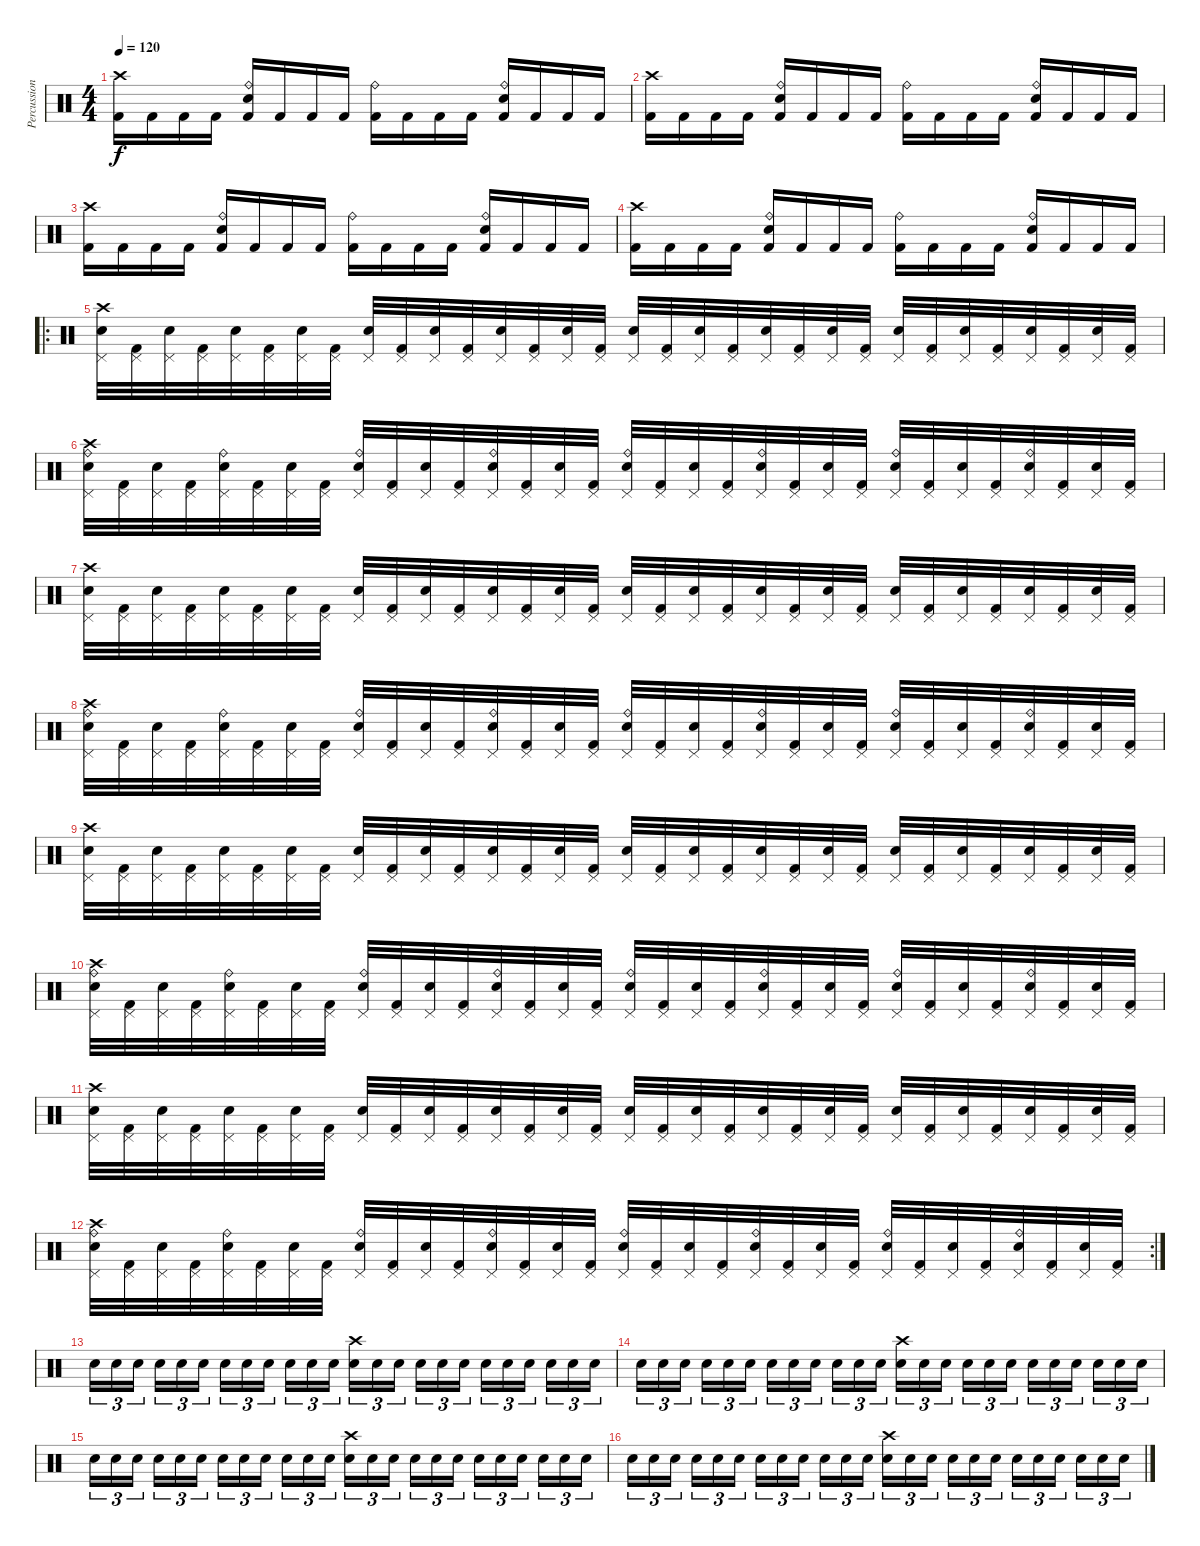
\track ("Percussions" "Percussion") {instrument percussion}
\staff {score}
\articulation defaults
\ts (4 4)
\tempo 120
\clef neutral
\ks c
("Crash high (hit)" "Kick (hit) 2").16{dy f} "Kick (hit) 2".16 "Kick (hit) 2".16 "Kick (hit) 2".16 ("Ride (bell)" "Snare (hit) 2" "Kick (hit) 2").16 "Kick (hit) 2".16 "Kick (hit) 2".16 "Kick (hit) 2".16 ("Ride (bell)" "Kick (hit) 2").16 "Kick (hit) 2".16 "Kick (hit) 2".16 "Kick (hit) 2".16 ("Ride (bell)" "Snare (hit) 2" "Kick (hit) 2").16 "Kick (hit) 2".16 "Kick (hit) 2".16 "Kick (hit) 2".16 |
("Crash high (hit)" "Kick (hit) 2").16 "Kick (hit) 2".16 "Kick (hit) 2".16 "Kick (hit) 2".16 ("Ride (bell)" "Snare (hit) 2" "Kick (hit) 2").16 "Kick (hit) 2".16 "Kick (hit) 2".16 "Kick (hit) 2".16 ("Ride (bell)" "Kick (hit) 2").16 "Kick (hit) 2".16 "Kick (hit) 2".16 "Kick (hit) 2".16 ("Ride (bell)" "Snare (hit) 2" "Kick (hit) 2").16 "Kick (hit) 2".16 "Kick (hit) 2".16 "Kick (hit) 2".16 |
("Crash high (hit)" "Kick (hit) 2").16 "Kick (hit) 2".16 "Kick (hit) 2".16 "Kick (hit) 2".16 ("Ride (bell)" "Snare (hit) 2" "Kick (hit) 2").16 "Kick (hit) 2".16 "Kick (hit) 2".16 "Kick (hit) 2".16 ("Ride (bell)" "Kick (hit) 2").16 "Kick (hit) 2".16 "Kick (hit) 2".16 "Kick (hit) 2".16 ("Ride (bell)" "Snare (hit) 2" "Kick (hit) 2").16 "Kick (hit) 2".16 "Kick (hit) 2".16 "Kick (hit) 2".16 |
("Crash high (hit)" "Kick (hit) 2").16 "Kick (hit) 2".16 "Kick (hit) 2".16 "Kick (hit) 2".16 ("Ride (bell)" "Snare (hit) 2" "Kick (hit) 2").16 "Kick (hit) 2".16 "Kick (hit) 2".16 "Kick (hit) 2".16 ("Ride (bell)" "Kick (hit) 2").16 "Kick (hit) 2".16 "Kick (hit) 2".16 "Kick (hit) 2".16 ("Ride (bell)" "Snare (hit) 2" "Kick (hit) 2").16 "Kick (hit) 2".16 "Kick (hit) 2".16 "Kick (hit) 2".16 |
\ro
("Pedal Hi-Hat (hit)" "Crash high (hit)" "Electric Snare (hit)").32{volume 16} ("Pedal Hi-Hat (hit)" "Kick (hit) 2").32 ("Pedal Hi-Hat (hit)" "Electric Snare (hit)").32 ("Pedal Hi-Hat (hit)" "Kick (hit) 2").32 ("Pedal Hi-Hat (hit)" "Electric Snare (hit)").32 ("Pedal Hi-Hat (hit)" "Kick (hit) 2").32 ("Pedal Hi-Hat (hit)" "Electric Snare (hit)").32 ("Pedal Hi-Hat (hit)" "Kick (hit) 2").32 ("Pedal Hi-Hat (hit)" "Electric Snare (hit)").32 ("Pedal Hi-Hat (hit)" "Kick (hit) 2").32 ("Pedal Hi-Hat (hit)" "Electric Snare (hit)").32 ("Pedal Hi-Hat (hit)" "Kick (hit) 2").32 ("Pedal Hi-Hat (hit)" "Electric Snare (hit)").32 ("Pedal Hi-Hat (hit)" "Kick (hit) 2").32 ("Pedal Hi-Hat (hit)" "Electric Snare (hit)").32 ("Pedal Hi-Hat (hit)" "Kick (hit) 2").32 ("Pedal Hi-Hat (hit)" "Electric Snare (hit)").32 ("Pedal Hi-Hat (hit)" "Kick (hit) 2").32 ("Pedal Hi-Hat (hit)" "Electric Snare (hit)").32 ("Pedal Hi-Hat (hit)" "Kick (hit) 2").32 ("Pedal Hi-Hat (hit)" "Electric Snare (hit)").32 ("Pedal Hi-Hat (hit)" "Kick (hit) 2").32 ("Pedal Hi-Hat (hit)" "Electric Snare (hit)").32 ("Pedal Hi-Hat (hit)" "Kick (hit) 2").32 ("Pedal Hi-Hat (hit)" "Electric Snare (hit)").32 ("Pedal Hi-Hat (hit)" "Kick (hit) 2").32 ("Pedal Hi-Hat (hit)" "Electric Snare (hit)").32 ("Pedal Hi-Hat (hit)" "Kick (hit) 2").32 ("Pedal Hi-Hat (hit)" "Electric Snare (hit)").32 ("Pedal Hi-Hat (hit)" "Kick (hit) 2").32 ("Pedal Hi-Hat (hit)" "Electric Snare (hit)").32 ("Pedal Hi-Hat (hit)" "Kick (hit) 2").32 |
("Ride (bell)" "Pedal Hi-Hat (hit)" "Crash high (hit)" "Electric Snare (hit)").32 ("Pedal Hi-Hat (hit)" "Kick (hit) 2").32 ("Pedal Hi-Hat (hit)" "Electric Snare (hit)").32 ("Pedal Hi-Hat (hit)" "Kick (hit) 2").32 ("Ride (bell)" "Pedal Hi-Hat (hit)" "Electric Snare (hit)").32 ("Pedal Hi-Hat (hit)" "Kick (hit) 2").32 ("Pedal Hi-Hat (hit)" "Electric Snare (hit)").32 ("Pedal Hi-Hat (hit)" "Kick (hit) 2").32 ("Ride (bell)" "Pedal Hi-Hat (hit)" "Electric Snare (hit)").32 ("Pedal Hi-Hat (hit)" "Kick (hit) 2").32 ("Pedal Hi-Hat (hit)" "Electric Snare (hit)").32 ("Pedal Hi-Hat (hit)" "Kick (hit) 2").32 ("Ride (bell)" "Pedal Hi-Hat (hit)" "Electric Snare (hit)").32 ("Pedal Hi-Hat (hit)" "Kick (hit) 2").32 ("Pedal Hi-Hat (hit)" "Electric Snare (hit)").32 ("Pedal Hi-Hat (hit)" "Kick (hit) 2").32 ("Ride (bell)" "Pedal Hi-Hat (hit)" "Electric Snare (hit)").32 ("Pedal Hi-Hat (hit)" "Kick (hit) 2").32 ("Pedal Hi-Hat (hit)" "Electric Snare (hit)").32 ("Pedal Hi-Hat (hit)" "Kick (hit) 2").32 ("Ride (bell)" "Pedal Hi-Hat (hit)" "Electric Snare (hit)").32 ("Pedal Hi-Hat (hit)" "Kick (hit) 2").32 ("Pedal Hi-Hat (hit)" "Electric Snare (hit)").32 ("Pedal Hi-Hat (hit)" "Kick (hit) 2").32 ("Ride (bell)" "Pedal Hi-Hat (hit)" "Electric Snare (hit)").32 ("Pedal Hi-Hat (hit)" "Kick (hit) 2").32 ("Pedal Hi-Hat (hit)" "Electric Snare (hit)").32 ("Pedal Hi-Hat (hit)" "Kick (hit) 2").32 ("Ride (bell)" "Pedal Hi-Hat (hit)" "Electric Snare (hit)").32 ("Pedal Hi-Hat (hit)" "Kick (hit) 2").32 ("Pedal Hi-Hat (hit)" "Electric Snare (hit)").32 ("Pedal Hi-Hat (hit)" "Kick (hit) 2").32 |
("Pedal Hi-Hat (hit)" "Crash high (hit)" "Electric Snare (hit)").32 ("Pedal Hi-Hat (hit)" "Kick (hit) 2").32 ("Pedal Hi-Hat (hit)" "Electric Snare (hit)").32 ("Pedal Hi-Hat (hit)" "Kick (hit) 2").32 ("Pedal Hi-Hat (hit)" "Electric Snare (hit)").32 ("Pedal Hi-Hat (hit)" "Kick (hit) 2").32 ("Pedal Hi-Hat (hit)" "Electric Snare (hit)").32 ("Pedal Hi-Hat (hit)" "Kick (hit) 2").32 ("Pedal Hi-Hat (hit)" "Electric Snare (hit)").32 ("Pedal Hi-Hat (hit)" "Kick (hit) 2").32 ("Pedal Hi-Hat (hit)" "Electric Snare (hit)").32 ("Pedal Hi-Hat (hit)" "Kick (hit) 2").32 ("Pedal Hi-Hat (hit)" "Electric Snare (hit)").32 ("Pedal Hi-Hat (hit)" "Kick (hit) 2").32 ("Pedal Hi-Hat (hit)" "Electric Snare (hit)").32 ("Pedal Hi-Hat (hit)" "Kick (hit) 2").32 ("Pedal Hi-Hat (hit)" "Electric Snare (hit)").32 ("Pedal Hi-Hat (hit)" "Kick (hit) 2").32 ("Pedal Hi-Hat (hit)" "Electric Snare (hit)").32 ("Pedal Hi-Hat (hit)" "Kick (hit) 2").32 ("Pedal Hi-Hat (hit)" "Electric Snare (hit)").32 ("Pedal Hi-Hat (hit)" "Kick (hit) 2").32 ("Pedal Hi-Hat (hit)" "Electric Snare (hit)").32 ("Pedal Hi-Hat (hit)" "Kick (hit) 2").32 ("Pedal Hi-Hat (hit)" "Electric Snare (hit)").32 ("Pedal Hi-Hat (hit)" "Kick (hit) 2").32 ("Pedal Hi-Hat (hit)" "Electric Snare (hit)").32 ("Pedal Hi-Hat (hit)" "Kick (hit) 2").32 ("Pedal Hi-Hat (hit)" "Electric Snare (hit)").32 ("Pedal Hi-Hat (hit)" "Kick (hit) 2").32 ("Pedal Hi-Hat (hit)" "Electric Snare (hit)").32 ("Pedal Hi-Hat (hit)" "Kick (hit) 2").32 |
("Ride (bell)" "Pedal Hi-Hat (hit)" "Crash high (hit)" "Electric Snare (hit)").32 ("Pedal Hi-Hat (hit)" "Kick (hit) 2").32 ("Pedal Hi-Hat (hit)" "Electric Snare (hit)").32 ("Pedal Hi-Hat (hit)" "Kick (hit) 2").32 ("Ride (bell)" "Pedal Hi-Hat (hit)" "Electric Snare (hit)").32 ("Pedal Hi-Hat (hit)" "Kick (hit) 2").32 ("Pedal Hi-Hat (hit)" "Electric Snare (hit)").32 ("Pedal Hi-Hat (hit)" "Kick (hit) 2").32 ("Ride (bell)" "Pedal Hi-Hat (hit)" "Electric Snare (hit)").32 ("Pedal Hi-Hat (hit)" "Kick (hit) 2").32 ("Pedal Hi-Hat (hit)" "Electric Snare (hit)").32 ("Pedal Hi-Hat (hit)" "Kick (hit) 2").32 ("Ride (bell)" "Pedal Hi-Hat (hit)" "Electric Snare (hit)").32 ("Pedal Hi-Hat (hit)" "Kick (hit) 2").32 ("Pedal Hi-Hat (hit)" "Electric Snare (hit)").32 ("Pedal Hi-Hat (hit)" "Kick (hit) 2").32 ("Ride (bell)" "Pedal Hi-Hat (hit)" "Electric Snare (hit)").32 ("Pedal Hi-Hat (hit)" "Kick (hit) 2").32 ("Pedal Hi-Hat (hit)" "Electric Snare (hit)").32 ("Pedal Hi-Hat (hit)" "Kick (hit) 2").32 ("Ride (bell)" "Pedal Hi-Hat (hit)" "Electric Snare (hit)").32 ("Pedal Hi-Hat (hit)" "Kick (hit) 2").32 ("Pedal Hi-Hat (hit)" "Electric Snare (hit)").32 ("Pedal Hi-Hat (hit)" "Kick (hit) 2").32 ("Ride (bell)" "Pedal Hi-Hat (hit)" "Electric Snare (hit)").32 ("Pedal Hi-Hat (hit)" "Kick (hit) 2").32 ("Pedal Hi-Hat (hit)" "Electric Snare (hit)").32 ("Pedal Hi-Hat (hit)" "Kick (hit) 2").32 ("Ride (bell)" "Pedal Hi-Hat (hit)" "Electric Snare (hit)").32 ("Pedal Hi-Hat (hit)" "Kick (hit) 2").32 ("Pedal Hi-Hat (hit)" "Electric Snare (hit)").32 ("Pedal Hi-Hat (hit)" "Kick (hit) 2").32 |
("Pedal Hi-Hat (hit)" "Crash high (hit)" "Electric Snare (hit)").32{volume 16} ("Pedal Hi-Hat (hit)" "Kick (hit) 2").32 ("Pedal Hi-Hat (hit)" "Electric Snare (hit)").32 ("Pedal Hi-Hat (hit)" "Kick (hit) 2").32 ("Pedal Hi-Hat (hit)" "Electric Snare (hit)").32 ("Pedal Hi-Hat (hit)" "Kick (hit) 2").32 ("Pedal Hi-Hat (hit)" "Electric Snare (hit)").32 ("Pedal Hi-Hat (hit)" "Kick (hit) 2").32 ("Pedal Hi-Hat (hit)" "Electric Snare (hit)").32 ("Pedal Hi-Hat (hit)" "Kick (hit) 2").32 ("Pedal Hi-Hat (hit)" "Electric Snare (hit)").32 ("Pedal Hi-Hat (hit)" "Kick (hit) 2").32 ("Pedal Hi-Hat (hit)" "Electric Snare (hit)").32 ("Pedal Hi-Hat (hit)" "Kick (hit) 2").32 ("Pedal Hi-Hat (hit)" "Electric Snare (hit)").32 ("Pedal Hi-Hat (hit)" "Kick (hit) 2").32 ("Pedal Hi-Hat (hit)" "Electric Snare (hit)").32 ("Pedal Hi-Hat (hit)" "Kick (hit) 2").32 ("Pedal Hi-Hat (hit)" "Electric Snare (hit)").32 ("Pedal Hi-Hat (hit)" "Kick (hit) 2").32 ("Pedal Hi-Hat (hit)" "Electric Snare (hit)").32 ("Pedal Hi-Hat (hit)" "Kick (hit) 2").32 ("Pedal Hi-Hat (hit)" "Electric Snare (hit)").32 ("Pedal Hi-Hat (hit)" "Kick (hit) 2").32 ("Pedal Hi-Hat (hit)" "Electric Snare (hit)").32 ("Pedal Hi-Hat (hit)" "Kick (hit) 2").32 ("Pedal Hi-Hat (hit)" "Electric Snare (hit)").32 ("Pedal Hi-Hat (hit)" "Kick (hit) 2").32 ("Pedal Hi-Hat (hit)" "Electric Snare (hit)").32 ("Pedal Hi-Hat (hit)" "Kick (hit) 2").32 ("Pedal Hi-Hat (hit)" "Electric Snare (hit)").32 ("Pedal Hi-Hat (hit)" "Kick (hit) 2").32 |
("Ride (bell)" "Pedal Hi-Hat (hit)" "Crash high (hit)" "Electric Snare (hit)").32 ("Pedal Hi-Hat (hit)" "Kick (hit) 2").32 ("Pedal Hi-Hat (hit)" "Electric Snare (hit)").32 ("Pedal Hi-Hat (hit)" "Kick (hit) 2").32 ("Ride (bell)" "Pedal Hi-Hat (hit)" "Electric Snare (hit)").32 ("Pedal Hi-Hat (hit)" "Kick (hit) 2").32 ("Pedal Hi-Hat (hit)" "Electric Snare (hit)").32 ("Pedal Hi-Hat (hit)" "Kick (hit) 2").32 ("Ride (bell)" "Pedal Hi-Hat (hit)" "Electric Snare (hit)").32 ("Pedal Hi-Hat (hit)" "Kick (hit) 2").32 ("Pedal Hi-Hat (hit)" "Electric Snare (hit)").32 ("Pedal Hi-Hat (hit)" "Kick (hit) 2").32 ("Ride (bell)" "Pedal Hi-Hat (hit)" "Electric Snare (hit)").32 ("Pedal Hi-Hat (hit)" "Kick (hit) 2").32 ("Pedal Hi-Hat (hit)" "Electric Snare (hit)").32 ("Pedal Hi-Hat (hit)" "Kick (hit) 2").32 ("Ride (bell)" "Pedal Hi-Hat (hit)" "Electric Snare (hit)").32 ("Pedal Hi-Hat (hit)" "Kick (hit) 2").32 ("Pedal Hi-Hat (hit)" "Electric Snare (hit)").32 ("Pedal Hi-Hat (hit)" "Kick (hit) 2").32 ("Ride (bell)" "Pedal Hi-Hat (hit)" "Electric Snare (hit)").32 ("Pedal Hi-Hat (hit)" "Kick (hit) 2").32 ("Pedal Hi-Hat (hit)" "Electric Snare (hit)").32 ("Pedal Hi-Hat (hit)" "Kick (hit) 2").32 ("Ride (bell)" "Pedal Hi-Hat (hit)" "Electric Snare (hit)").32 ("Pedal Hi-Hat (hit)" "Kick (hit) 2").32 ("Pedal Hi-Hat (hit)" "Electric Snare (hit)").32 ("Pedal Hi-Hat (hit)" "Kick (hit) 2").32 ("Ride (bell)" "Pedal Hi-Hat (hit)" "Electric Snare (hit)").32 ("Pedal Hi-Hat (hit)" "Kick (hit) 2").32 ("Pedal Hi-Hat (hit)" "Electric Snare (hit)").32 ("Pedal Hi-Hat (hit)" "Kick (hit) 2").32 |
("Pedal Hi-Hat (hit)" "Crash high (hit)" "Electric Snare (hit)").32 ("Pedal Hi-Hat (hit)" "Kick (hit) 2").32 ("Pedal Hi-Hat (hit)" "Electric Snare (hit)").32 ("Pedal Hi-Hat (hit)" "Kick (hit) 2").32 ("Pedal Hi-Hat (hit)" "Electric Snare (hit)").32 ("Pedal Hi-Hat (hit)" "Kick (hit) 2").32 ("Pedal Hi-Hat (hit)" "Electric Snare (hit)").32 ("Pedal Hi-Hat (hit)" "Kick (hit) 2").32 ("Pedal Hi-Hat (hit)" "Electric Snare (hit)").32 ("Pedal Hi-Hat (hit)" "Kick (hit) 2").32 ("Pedal Hi-Hat (hit)" "Electric Snare (hit)").32 ("Pedal Hi-Hat (hit)" "Kick (hit) 2").32 ("Pedal Hi-Hat (hit)" "Electric Snare (hit)").32 ("Pedal Hi-Hat (hit)" "Kick (hit) 2").32 ("Pedal Hi-Hat (hit)" "Electric Snare (hit)").32 ("Pedal Hi-Hat (hit)" "Kick (hit) 2").32 ("Pedal Hi-Hat (hit)" "Electric Snare (hit)").32 ("Pedal Hi-Hat (hit)" "Kick (hit) 2").32 ("Pedal Hi-Hat (hit)" "Electric Snare (hit)").32 ("Pedal Hi-Hat (hit)" "Kick (hit) 2").32 ("Pedal Hi-Hat (hit)" "Electric Snare (hit)").32 ("Pedal Hi-Hat (hit)" "Kick (hit) 2").32 ("Pedal Hi-Hat (hit)" "Electric Snare (hit)").32 ("Pedal Hi-Hat (hit)" "Kick (hit) 2").32 ("Pedal Hi-Hat (hit)" "Electric Snare (hit)").32 ("Pedal Hi-Hat (hit)" "Kick (hit) 2").32 ("Pedal Hi-Hat (hit)" "Electric Snare (hit)").32 ("Pedal Hi-Hat (hit)" "Kick (hit) 2").32 ("Pedal Hi-Hat (hit)" "Electric Snare (hit)").32 ("Pedal Hi-Hat (hit)" "Kick (hit) 2").32 ("Pedal Hi-Hat (hit)" "Electric Snare (hit)").32 ("Pedal Hi-Hat (hit)" "Kick (hit) 2").32 |
\rc 2
("Ride (bell)" "Pedal Hi-Hat (hit)" "Crash high (hit)" "Electric Snare (hit)").32 ("Pedal Hi-Hat (hit)" "Kick (hit) 2").32 ("Pedal Hi-Hat (hit)" "Electric Snare (hit)").32 ("Pedal Hi-Hat (hit)" "Kick (hit) 2").32 ("Ride (bell)" "Pedal Hi-Hat (hit)" "Electric Snare (hit)").32 ("Pedal Hi-Hat (hit)" "Kick (hit) 2").32 ("Pedal Hi-Hat (hit)" "Electric Snare (hit)").32 ("Pedal Hi-Hat (hit)" "Kick (hit) 2").32 ("Ride (bell)" "Pedal Hi-Hat (hit)" "Electric Snare (hit)").32 ("Pedal Hi-Hat (hit)" "Kick (hit) 2").32 ("Pedal Hi-Hat (hit)" "Electric Snare (hit)").32 ("Pedal Hi-Hat (hit)" "Kick (hit) 2").32 ("Ride (bell)" "Pedal Hi-Hat (hit)" "Electric Snare (hit)").32 ("Pedal Hi-Hat (hit)" "Kick (hit) 2").32 ("Pedal Hi-Hat (hit)" "Electric Snare (hit)").32 ("Pedal Hi-Hat (hit)" "Kick (hit) 2").32 ("Ride (bell)" "Pedal Hi-Hat (hit)" "Electric Snare (hit)").32 ("Pedal Hi-Hat (hit)" "Kick (hit) 2").32 ("Pedal Hi-Hat (hit)" "Electric Snare (hit)").32 ("Pedal Hi-Hat (hit)" "Kick (hit) 2").32 ("Ride (bell)" "Pedal Hi-Hat (hit)" "Electric Snare (hit)").32 ("Pedal Hi-Hat (hit)" "Kick (hit) 2").32 ("Pedal Hi-Hat (hit)" "Electric Snare (hit)").32 ("Pedal Hi-Hat (hit)" "Kick (hit) 2").32 ("Ride (bell)" "Pedal Hi-Hat (hit)" "Electric Snare (hit)").32 ("Pedal Hi-Hat (hit)" "Kick (hit) 2").32 ("Pedal Hi-Hat (hit)" "Electric Snare (hit)").32 ("Pedal Hi-Hat (hit)" "Kick (hit) 2").32 ("Ride (bell)" "Pedal Hi-Hat (hit)" "Electric Snare (hit)").32 ("Pedal Hi-Hat (hit)" "Kick (hit) 2").32 ("Pedal Hi-Hat (hit)" "Electric Snare (hit)").32 ("Pedal Hi-Hat (hit)" "Kick (hit) 2").32 |
"Electric Snare (hit)".16{tu (3 2) volume 10} "Snare (hit) 2".16{tu (3 2)} "Electric Snare (hit)".16{tu (3 2) beam splitsecondary} "Snare (hit) 2".16{tu (3 2)} "Electric Snare (hit)".16{tu (3 2)} "Snare (hit) 2".16{tu (3 2)} "Electric Snare (hit)".16{tu (3 2)} "Snare (hit) 2".16{tu (3 2)} "Electric Snare (hit)".16{tu (3 2) beam splitsecondary} "Snare (hit) 2".16{tu (3 2)} "Electric Snare (hit)".16{tu (3 2)} "Snare (hit) 2".16{tu (3 2)} ("Crash high (hit)" "Electric Snare (hit)").16{tu (3 2)} "Snare (hit) 2".16{tu (3 2)} "Electric Snare (hit)".16{tu (3 2) beam splitsecondary} "Snare (hit) 2".16{tu (3 2)} "Electric Snare (hit)".16{tu (3 2)} "Snare (hit) 2".16{tu (3 2)} "Electric Snare (hit)".16{tu (3 2)} "Snare (hit) 2".16{tu (3 2)} "Electric Snare (hit)".16{tu (3 2) beam splitsecondary} "Snare (hit) 2".16{tu (3 2)} "Electric Snare (hit)".16{tu (3 2)} "Snare (hit) 2".16{tu (3 2)} |
"Electric Snare (hit)".16{tu (3 2)} "Snare (hit) 2".16{tu (3 2)} "Electric Snare (hit)".16{tu (3 2) beam splitsecondary} "Snare (hit) 2".16{tu (3 2)} "Electric Snare (hit)".16{tu (3 2)} "Snare (hit) 2".16{tu (3 2)} "Electric Snare (hit)".16{tu (3 2)} "Snare (hit) 2".16{tu (3 2)} "Electric Snare (hit)".16{tu (3 2) beam splitsecondary} "Snare (hit) 2".16{tu (3 2)} "Electric Snare (hit)".16{tu (3 2)} "Snare (hit) 2".16{tu (3 2)} ("Crash high (hit)" "Electric Snare (hit)").16{tu (3 2)} "Snare (hit) 2".16{tu (3 2)} "Electric Snare (hit)".16{tu (3 2) beam splitsecondary} "Snare (hit) 2".16{tu (3 2)} "Electric Snare (hit)".16{tu (3 2)} "Snare (hit) 2".16{tu (3 2)} "Electric Snare (hit)".16{tu (3 2)} "Snare (hit) 2".16{tu (3 2)} "Electric Snare (hit)".16{tu (3 2) beam splitsecondary} "Snare (hit) 2".16{tu (3 2)} "Electric Snare (hit)".16{tu (3 2)} "Snare (hit) 2".16{tu (3 2)} |
"Electric Snare (hit)".16{tu (3 2)} "Snare (hit) 2".16{tu (3 2)} "Electric Snare (hit)".16{tu (3 2) beam splitsecondary} "Snare (hit) 2".16{tu (3 2)} "Electric Snare (hit)".16{tu (3 2)} "Snare (hit) 2".16{tu (3 2)} "Electric Snare (hit)".16{tu (3 2)} "Snare (hit) 2".16{tu (3 2)} "Electric Snare (hit)".16{tu (3 2) beam splitsecondary} "Snare (hit) 2".16{tu (3 2)} "Electric Snare (hit)".16{tu (3 2)} "Snare (hit) 2".16{tu (3 2)} ("Crash high (hit)" "Electric Snare (hit)").16{tu (3 2)} "Snare (hit) 2".16{tu (3 2)} "Electric Snare (hit)".16{tu (3 2) beam splitsecondary} "Snare (hit) 2".16{tu (3 2)} "Electric Snare (hit)".16{tu (3 2)} "Snare (hit) 2".16{tu (3 2)} "Electric Snare (hit)".16{tu (3 2)} "Snare (hit) 2".16{tu (3 2)} "Electric Snare (hit)".16{tu (3 2) beam splitsecondary} "Snare (hit) 2".16{tu (3 2)} "Electric Snare (hit)".16{tu (3 2)} "Snare (hit) 2".16{tu (3 2)} |
"Electric Snare (hit)".16{tu (3 2)} "Snare (hit) 2".16{tu (3 2)} "Electric Snare (hit)".16{tu (3 2) beam splitsecondary} "Snare (hit) 2".16{tu (3 2)} "Electric Snare (hit)".16{tu (3 2)} "Snare (hit) 2".16{tu (3 2)} "Electric Snare (hit)".16{tu (3 2)} "Snare (hit) 2".16{tu (3 2)} "Electric Snare (hit)".16{tu (3 2) beam splitsecondary} "Snare (hit) 2".16{tu (3 2)} "Electric Snare (hit)".16{tu (3 2)} "Snare (hit) 2".16{tu (3 2)} ("Crash high (hit)" "Electric Snare (hit)").16{tu (3 2)} "Snare (hit) 2".16{tu (3 2)} "Electric Snare (hit)".16{tu (3 2) beam splitsecondary} "Snare (hit) 2".16{tu (3 2)} "Electric Snare (hit)".16{tu (3 2)} "Snare (hit) 2".16{tu (3 2)} "Electric Snare (hit)".16{tu (3 2)} "Snare (hit) 2".16{tu (3 2)} "Electric Snare (hit)".16{tu (3 2) beam splitsecondary} "Snare (hit) 2".16{tu (3 2)} "Electric Snare (hit)".16{tu (3 2)} "Snare (hit) 2".16{tu (3 2)}
